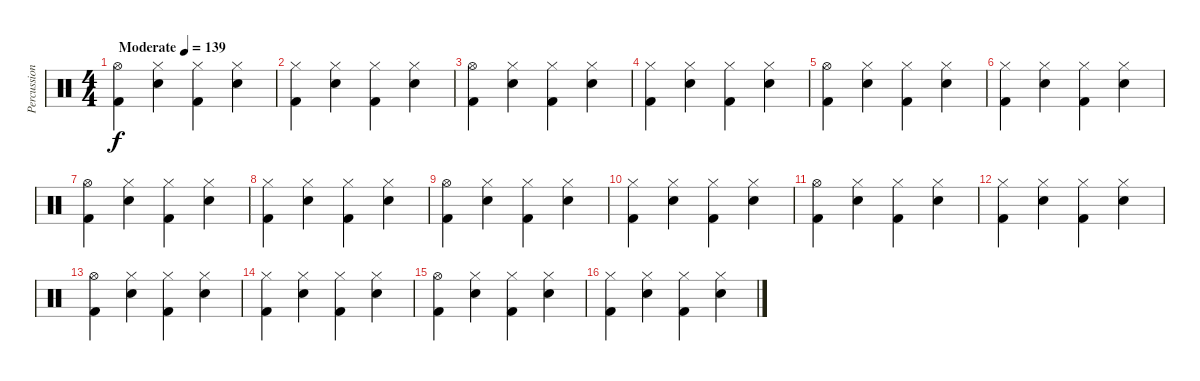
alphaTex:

\track ("Percussion" "Percussion") {instrument percussion}
\staff {score}
\articulation defaults
\ts (4 4)
\tempo (139 "Moderate")
\clef neutral
\ks c
("Hi-Hat (open)" "Kick (hit) 2").4{dy f} ("Hi-Hat (closed)" "Electric Snare (hit)").4 ("Hi-Hat (closed)" "Kick (hit) 2").4 ("Hi-Hat (closed)" "Electric Snare (hit)").4 |
("Hi-Hat (closed)" "Kick (hit) 2").4 ("Hi-Hat (closed)" "Electric Snare (hit)").4 ("Hi-Hat (closed)" "Kick (hit) 2").4 ("Hi-Hat (closed)" "Electric Snare (hit)").4 |
("Hi-Hat (open)" "Kick (hit) 2").4 ("Hi-Hat (closed)" "Electric Snare (hit)").4 ("Hi-Hat (closed)" "Kick (hit) 2").4 ("Hi-Hat (closed)" "Electric Snare (hit)").4 |
("Hi-Hat (closed)" "Kick (hit) 2").4 ("Hi-Hat (closed)" "Electric Snare (hit)").4 ("Hi-Hat (closed)" "Kick (hit) 2").4 ("Hi-Hat (closed)" "Electric Snare (hit)").4 |
("Hi-Hat (open)" "Kick (hit) 2").4 ("Hi-Hat (closed)" "Electric Snare (hit)").4 ("Hi-Hat (closed)" "Kick (hit) 2").4 ("Hi-Hat (closed)" "Electric Snare (hit)").4 |
("Hi-Hat (closed)" "Kick (hit) 2").4 ("Hi-Hat (closed)" "Electric Snare (hit)").4 ("Hi-Hat (closed)" "Kick (hit) 2").4 ("Hi-Hat (closed)" "Electric Snare (hit)").4 |
("Hi-Hat (open)" "Kick (hit) 2").4 ("Hi-Hat (closed)" "Electric Snare (hit)").4 ("Hi-Hat (closed)" "Kick (hit) 2").4 ("Hi-Hat (closed)" "Electric Snare (hit)").4 |
("Hi-Hat (closed)" "Kick (hit) 2").4 ("Hi-Hat (closed)" "Electric Snare (hit)").4 ("Hi-Hat (closed)" "Kick (hit) 2").4 ("Hi-Hat (closed)" "Electric Snare (hit)").4 |
("Hi-Hat (open)" "Kick (hit) 2").4 ("Hi-Hat (closed)" "Electric Snare (hit)").4 ("Hi-Hat (closed)" "Kick (hit) 2").4 ("Hi-Hat (closed)" "Electric Snare (hit)").4 |
("Hi-Hat (closed)" "Kick (hit) 2").4 ("Hi-Hat (closed)" "Electric Snare (hit)").4 ("Hi-Hat (closed)" "Kick (hit) 2").4 ("Hi-Hat (closed)" "Electric Snare (hit)").4 |
("Hi-Hat (open)" "Kick (hit) 2").4 ("Hi-Hat (closed)" "Electric Snare (hit)").4 ("Hi-Hat (closed)" "Kick (hit) 2").4 ("Hi-Hat (closed)" "Electric Snare (hit)").4 |
("Hi-Hat (closed)" "Kick (hit) 2").4 ("Hi-Hat (closed)" "Electric Snare (hit)").4 ("Hi-Hat (closed)" "Kick (hit) 2").4 ("Hi-Hat (closed)" "Electric Snare (hit)").4 |
("Hi-Hat (open)" "Kick (hit) 2").4 ("Hi-Hat (closed)" "Electric Snare (hit)").4 ("Hi-Hat (closed)" "Kick (hit) 2").4 ("Hi-Hat (closed)" "Electric Snare (hit)").4 |
("Hi-Hat (closed)" "Kick (hit) 2").4 ("Hi-Hat (closed)" "Electric Snare (hit)").4 ("Hi-Hat (closed)" "Kick (hit) 2").4 ("Hi-Hat (closed)" "Electric Snare (hit)").4 |
("Hi-Hat (open)" "Kick (hit) 2").4 ("Hi-Hat (closed)" "Electric Snare (hit)").4 ("Hi-Hat (closed)" "Kick (hit) 2").4 ("Hi-Hat (closed)" "Electric Snare (hit)").4 |
("Hi-Hat (closed)" "Kick (hit) 2").4 ("Hi-Hat (closed)" "Electric Snare (hit)").4 ("Hi-Hat (closed)" "Kick (hit) 2").4 ("Hi-Hat (closed)" "Electric Snare (hit)").4
